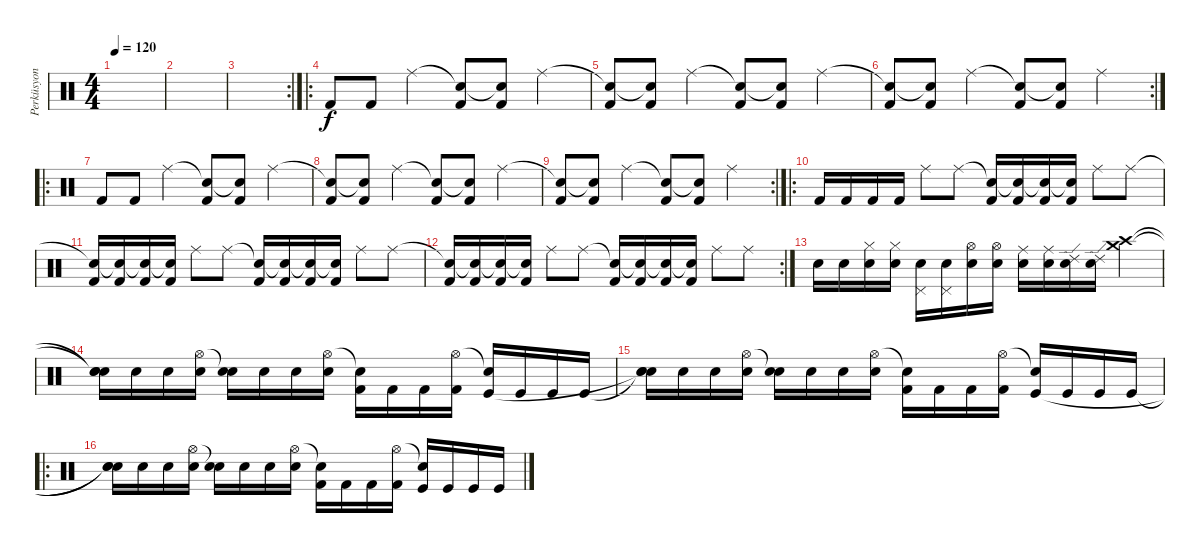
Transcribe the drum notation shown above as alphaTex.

\track ("Perküsyon" "Perküsyon") {instrument percussion}
\staff {score}
\articulation defaults
\ts (4 4)
\tempo 120
\clef neutral
\ks c
|
|
\rc 2
|
\ro "Kick (hit) 2".8 "Kick (hit) 2".8 "Ride (middle)".4
("Snare (hit)"{t} "Kick (hit) 2").8 ("Snare (hit)"{t} "Kick (hit) 2").8 "Ride (middle)".4 |
("Snare (hit)"{t} "Kick (hit) 2").8 ("Snare (hit)"{t} "Kick (hit) 2").8 "Ride (middle)".4 ("Snare (hit)"{t} "Kick (hit) 2").8 ("Snare (hit)"{t} "Kick (hit) 2").8 "Ride (middle)".4 |
\rc 2
("Snare (hit)"{t} "Kick (hit) 2").8 ("Snare (hit)"{t} "Kick (hit) 2").8 "Ride (middle)".4 ("Snare (hit)"{t} "Kick (hit) 2").8 ("Snare (hit)"{t} "Kick (hit) 2").8 "Ride (middle)".4 |
\ro "Kick (hit) 2".8 "Kick (hit) 2".8 "Ride (middle)".4
("Snare (hit)"{t} "Kick (hit) 2").8 ("Snare (hit)"{t} "Kick (hit) 2").8 "Ride (middle)".4 |
("Snare (hit)"{t} "Kick (hit) 2").8 ("Snare (hit)"{t} "Kick (hit) 2").8 "Ride (middle)".4 ("Snare (hit)"{t} "Kick (hit) 2").8 ("Snare (hit)"{t} "Kick (hit) 2").8 "Ride (middle)".4 |
\rc 2
("Snare (hit)"{t} "Kick (hit) 2").8 ("Snare (hit)"{t} "Kick (hit) 2").8 "Ride (middle)".4 ("Snare (hit)"{t} "Kick (hit) 2").8 ("Snare (hit)"{t} "Kick (hit) 2").8 "Ride (middle)".4 |
\ro "Kick (hit) 2".16 "Kick (hit) 2".16 "Kick (hit) 2".16 "Kick (hit) 2".16 "Ride (middle)".8 "Ride (middle)".8
("Snare (hit)"{t} "Kick (hit) 2").16 ("Snare (hit)"{t} "Kick (hit) 2").16 ("Snare (hit)"{t} "Kick (hit) 2").16 ("Snare (hit)"{t} "Kick (hit) 2").16 "Ride (middle)".8 "Ride (middle)".8 |
("Snare (hit)"{t} "Kick (hit) 2").16 ("Snare (hit)"{t} "Kick (hit) 2").16 ("Snare (hit)"{t} "Kick (hit) 2").16 ("Snare (hit)"{t} "Kick (hit) 2").16 "Ride (middle)".8 "Ride (middle)".8 ("Snare (hit)"{t} "Kick (hit) 2").16 ("Snare (hit)"{t} "Kick (hit) 2").16 ("Snare (hit)"{t} "Kick (hit) 2").16 ("Snare (hit)"{t} "Kick (hit) 2").16 "Ride (middle)".8 "Ride (middle)".8 |
\rc 2
("Snare (hit)"{t} "Kick (hit) 2").16 ("Snare (hit)"{t} "Kick (hit) 2").16 ("Snare (hit)"{t} "Kick (hit) 2").16 ("Snare (hit)"{t} "Kick (hit) 2").16 "Ride (middle)".8 "Ride (middle)".8 ("Snare (hit)"{t} "Kick (hit) 2").16 ("Snare (hit)"{t} "Kick (hit) 2").16 ("Snare (hit)"{t} "Kick (hit) 2").16 ("Snare (hit)"{t} "Kick (hit) 2").16 "Ride (middle)".8 "Ride (middle)".8 |
"Snare (hit) 2".16 "Snare (hit) 2".16 ("Snare (hit) 2" "Hi-Hat (closed)").16 ("Snare (hit) 2" "Hi-Hat (closed)").16 ("Snare (hit) 2" "Pedal Hi-Hat (hit)").16 ("Snare (hit) 2" "Pedal Hi-Hat (hit)").16 ("Snare (hit) 2" "Hi-Hat (open)").16 ("Snare (hit) 2" "Hi-Hat (open)").16 ("Snare (hit) 2" "Ride (middle)").16 ("Snare (hit) 2" "Ride (middle)").16 ("Snare (hit) 2" "Ride (edge) 2").16 ("Snare (hit) 2" "Ride (edge) 2").16 ("Crash medium (hit)" "Crash high (hit)").4 |
("Snare (hit)"{t} "Snare (hit)"{t} "Electric Snare (hit)").16 "Electric Snare (hit)".16 "Electric Snare (hit)".16 ("Hi-Hat (open)" "Electric Snare (hit)").16 ("Snare (hit)"{t} "Snare (hit) 2").16 "Snare (hit) 2".16 "Snare (hit) 2".16 ("Hi-Hat (open)" "Snare (hit) 2").16 ("Snare (hit)"{t} "Kick (hit) 2").16 "Kick (hit) 2".16 "Kick (hit) 2".16 ("Hi-Hat (open)" "Kick (hit) 2").16 ("Snare (hit)"{t} "Kick (hit)").16 "Kick (hit)".16 "Kick (hit)".16 "Kick (hit)".16 |
("Snare (hit)"{t} "Snare (hit)"{t} "Electric Snare (hit)").16 "Electric Snare (hit)".16 "Electric Snare (hit)".16 ("Hi-Hat (open)" "Electric Snare (hit)").16 ("Snare (hit)"{t} "Snare (hit) 2").16 "Snare (hit) 2".16 "Snare (hit) 2".16 ("Hi-Hat (open)" "Snare (hit) 2").16 ("Snare (hit)"{t} "Kick (hit) 2").16 "Kick (hit) 2".16 "Kick (hit) 2".16 ("Hi-Hat (open)" "Kick (hit) 2").16 ("Snare (hit)"{t} "Kick (hit)").16 "Kick (hit)".16 "Kick (hit)".16 "Kick (hit)".16 |
\ro
("Snare (hit)"{t} "Snare (hit)"{t} "Electric Snare (hit)").16 "Electric Snare (hit)".16 "Electric Snare (hit)".16 ("Hi-Hat (open)" "Electric Snare (hit)").16 ("Snare (hit)"{t} "Snare (hit) 2").16 "Snare (hit) 2".16 "Snare (hit) 2".16 ("Hi-Hat (open)" "Snare (hit) 2").16 ("Snare (hit)"{t} "Kick (hit) 2").16 "Kick (hit) 2".16 "Kick (hit) 2".16 ("Hi-Hat (open)" "Kick (hit) 2").16 ("Snare (hit)"{t} "Kick (hit)").16 "Kick (hit)".16 "Kick (hit)".16 "Kick (hit)".16
